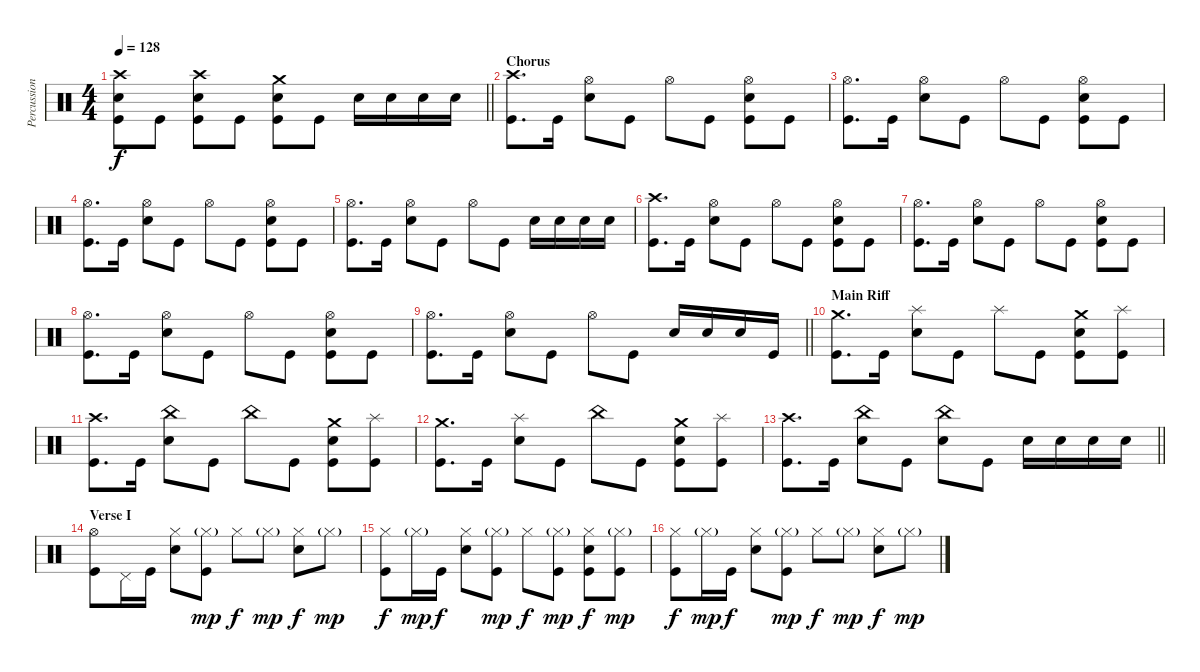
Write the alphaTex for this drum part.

\track ("Percussion" "Percussion") {instrument percussion}
\staff {score}
\articulation defaults
\ts (4 4)
\tempo 128
\clef neutral
\barLineRight lightlight
\ks c
("Crash high (hit)" "Electric Snare (hit)" "Kick (hit)").8{dy f} "Kick (hit)".8 ("Crash high (hit)" "Electric Snare (hit)" "Kick (hit)").8 "Kick (hit)".8 ("Crash medium (hit)" "Electric Snare (hit)" "Kick (hit)").8 "Kick (hit)".8 "Electric Snare (hit)".16 "Electric Snare (hit)".16 "Electric Snare (hit)".16 "Electric Snare (hit)".16 |
\section ("" "Chorus")
("Crash high (hit)" "Kick (hit)").8{d} "Kick (hit)".16 ("Hi-Hat (open)" "Electric Snare (hit)").8 "Kick (hit)".8 "Hi-Hat (open)".8 "Kick (hit)".8 ("Hi-Hat (open)" "Electric Snare (hit)" "Kick (hit)").8 "Kick (hit)".8 |
("Hi-Hat (open)" "Kick (hit)").8{d} "Kick (hit)".16 ("Hi-Hat (open)" "Electric Snare (hit)").8 "Kick (hit)".8 "Hi-Hat (open)".8 "Kick (hit)".8 ("Hi-Hat (open)" "Electric Snare (hit)" "Kick (hit)").8 "Kick (hit)".8 |
("Hi-Hat (open)" "Kick (hit)").8{d} "Kick (hit)".16 ("Hi-Hat (open)" "Electric Snare (hit)").8 "Kick (hit)".8 "Hi-Hat (open)".8 "Kick (hit)".8 ("Hi-Hat (open)" "Electric Snare (hit)" "Kick (hit)").8 "Kick (hit)".8 |
("Hi-Hat (open)" "Kick (hit)").8{d} "Kick (hit)".16 ("Hi-Hat (open)" "Electric Snare (hit)").8 "Kick (hit)".8 "Hi-Hat (open)".8 "Kick (hit)".8 "Electric Snare (hit)".16 "Electric Snare (hit)".16 "Electric Snare (hit)".16 "Electric Snare (hit)".16 |
("Crash high (hit)" "Kick (hit)").8{d} "Kick (hit)".16 ("Hi-Hat (open)" "Electric Snare (hit)").8 "Kick (hit)".8 "Hi-Hat (open)".8 "Kick (hit)".8 ("Hi-Hat (open)" "Electric Snare (hit)" "Kick (hit)").8 "Kick (hit)".8 |
("Hi-Hat (open)" "Kick (hit)").8{d} "Kick (hit)".16 ("Hi-Hat (open)" "Electric Snare (hit)").8 "Kick (hit)".8 "Hi-Hat (open)".8 "Kick (hit)".8 ("Hi-Hat (open)" "Electric Snare (hit)" "Kick (hit)").8 "Kick (hit)".8 |
("Hi-Hat (open)" "Kick (hit)").8{d} "Kick (hit)".16 ("Hi-Hat (open)" "Electric Snare (hit)").8 "Kick (hit)".8 "Hi-Hat (open)".8 "Kick (hit)".8 ("Hi-Hat (open)" "Electric Snare (hit)" "Kick (hit)").8 "Kick (hit)".8 |
\barLineRight lightlight
("Hi-Hat (open)" "Kick (hit)").8{d} "Kick (hit)".16 ("Hi-Hat (open)" "Electric Snare (hit)").8 "Kick (hit)".8 "Hi-Hat (open)".8 "Kick (hit)".8 "Electric Snare (hit)".16 "Electric Snare (hit)".16 "Electric Snare (hit)".16 "Kick (hit)".16 |
\section ("" "Main Riff")
("Crash medium (hit)" "Kick (hit)").8{d} "Kick (hit)".16 ("Splash (hit)" "Electric Snare (hit)").8 "Kick (hit)".8 "Splash (hit)".8 "Kick (hit)".8 ("Crash medium (hit)" "Electric Snare (hit)" "Kick (hit)").8 ("Splash (hit)" "Kick (hit)").8 |
("Crash high (hit)" "Kick (hit)").8{d} "Kick (hit)".16 ("China (hit)" "Electric Snare (hit)").8 "Kick (hit)".8 "China (hit)".8 "Kick (hit)".8 ("Crash medium (hit)" "Electric Snare (hit)" "Kick (hit)").8 ("Splash (hit)" "Kick (hit)").8 |
("Crash medium (hit)" "Kick (hit)").8{d} "Kick (hit)".16 ("Splash (hit)" "Electric Snare (hit)").8 "Kick (hit)".8 "China (hit)".8 "Kick (hit)".8 ("Crash medium (hit)" "Electric Snare (hit)" "Kick (hit)").8 ("Splash (hit)" "Kick (hit)").8 |
\barLineRight lightlight
("Crash high (hit)" "Kick (hit)").8{d} "Kick (hit)".16 ("China (hit)" "Electric Snare (hit)").8 "Kick (hit)".8 ("China (hit)" "Electric Snare (hit)").8 "Kick (hit)".8 "Electric Snare (hit)".16 "Electric Snare (hit)".16 "Electric Snare (hit)".16 "Electric Snare (hit)".16 |
\section ("" "Verse I")
("Hi-Hat (open)" "Kick (hit)").8 "Pedal Hi-Hat (hit)".16 "Kick (hit)".16 ("Hi-Hat (closed)" "Electric Snare (hit)").8 ("Hi-Hat (closed)"{g} "Kick (hit)").8{dy mp} "Hi-Hat (closed)".8{dy f} "Hi-Hat (closed)"{g}.8{dy mp} ("Hi-Hat (closed)" "Electric Snare (hit)").8{dy f} "Hi-Hat (closed)"{g}.8{dy mp} |
("Hi-Hat (closed)" "Kick (hit)").8{dy f} "Hi-Hat (closed)"{g}.16{dy mp} "Kick (hit)".16{dy f} ("Hi-Hat (closed)" "Electric Snare (hit)").8 ("Hi-Hat (closed)"{g} "Kick (hit)").8{dy mp} "Hi-Hat (closed)".8{dy f} ("Hi-Hat (closed)"{g} "Kick (hit)").8{dy mp} ("Hi-Hat (closed)" "Electric Snare (hit)" "Kick (hit)").8{dy f} ("Hi-Hat (closed)"{g} "Kick (hit)").8{dy mp} |
("Hi-Hat (closed)" "Kick (hit)").8{dy f} "Hi-Hat (closed)"{g}.16{dy mp} "Kick (hit)".16{dy f} ("Hi-Hat (closed)" "Electric Snare (hit)").8 ("Hi-Hat (closed)"{g} "Kick (hit)").8{dy mp} "Hi-Hat (closed)".8{dy f} "Hi-Hat (closed)"{g}.8{dy mp} ("Hi-Hat (closed)" "Electric Snare (hit)").8{dy f} "Hi-Hat (closed)"{g}.8{dy mp}
